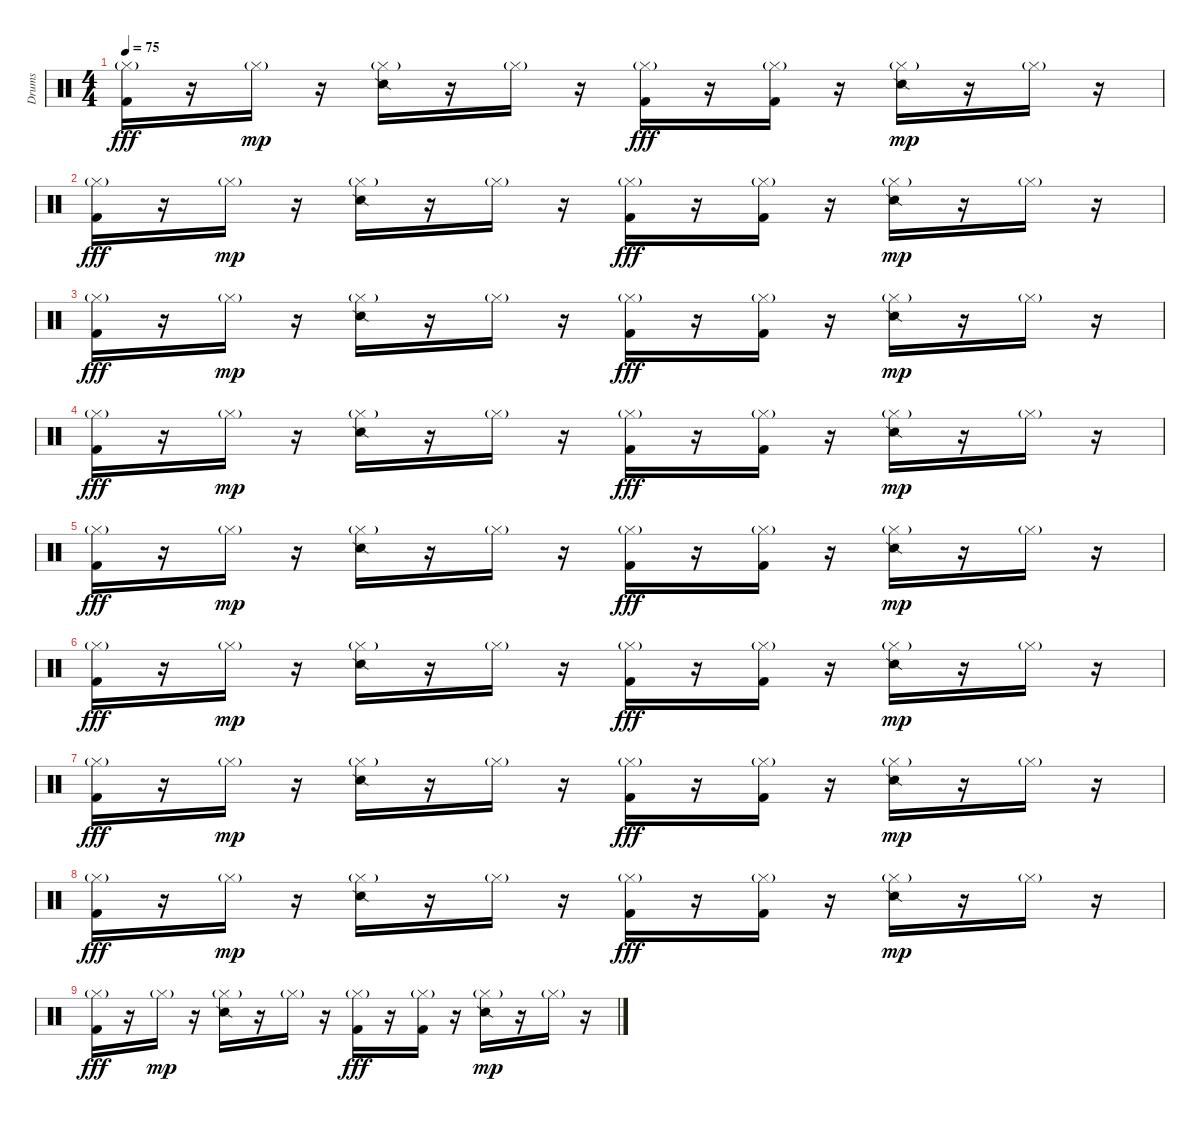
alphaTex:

\track ("Drums" "Drums") {instrument percussion}
\staff {score}
\articulation defaults
\ts (4 4)
\tempo 75
\clef neutral
\ks c
("Hi-Hat (closed)"{g} "Kick (hit) 2").16{dy fff} r.16 "Hi-Hat (closed)"{g}.16{dy mp} r.16 ("Hi-Hat (closed)"{g} "Snare (side stick) 2").16 r.16 "Hi-Hat (closed)"{g}.16 r.16 ("Hi-Hat (closed)"{g} "Kick (hit) 2").16{dy fff} r.16 ("Hi-Hat (closed)"{g} "Kick (hit) 2").16 r.16 ("Hi-Hat (closed)"{g} "Snare (side stick) 2").16{dy mp} r.16 "Hi-Hat (closed)"{g}.16 r.16 |
("Hi-Hat (closed)"{g} "Kick (hit) 2").16{dy fff} r.16 "Hi-Hat (closed)"{g}.16{dy mp} r.16 ("Hi-Hat (closed)"{g} "Snare (side stick) 2").16 r.16 "Hi-Hat (closed)"{g}.16 r.16 ("Hi-Hat (closed)"{g} "Kick (hit) 2").16{dy fff} r.16 ("Hi-Hat (closed)"{g} "Kick (hit) 2").16 r.16 ("Hi-Hat (closed)"{g} "Snare (side stick) 2").16{dy mp} r.16 "Hi-Hat (closed)"{g}.16 r.16 |
("Hi-Hat (closed)"{g} "Kick (hit) 2").16{dy fff} r.16 "Hi-Hat (closed)"{g}.16{dy mp} r.16 ("Hi-Hat (closed)"{g} "Snare (side stick) 2").16 r.16 "Hi-Hat (closed)"{g}.16 r.16 ("Hi-Hat (closed)"{g} "Kick (hit) 2").16{dy fff} r.16 ("Hi-Hat (closed)"{g} "Kick (hit) 2").16 r.16 ("Hi-Hat (closed)"{g} "Snare (side stick) 2").16{dy mp} r.16 "Hi-Hat (closed)"{g}.16 r.16 |
("Hi-Hat (closed)"{g} "Kick (hit) 2").16{dy fff} r.16 "Hi-Hat (closed)"{g}.16{dy mp} r.16 ("Hi-Hat (closed)"{g} "Snare (side stick) 2").16 r.16 "Hi-Hat (closed)"{g}.16 r.16 ("Hi-Hat (closed)"{g} "Kick (hit) 2").16{dy fff} r.16 ("Hi-Hat (closed)"{g} "Kick (hit) 2").16 r.16 ("Hi-Hat (closed)"{g} "Snare (side stick) 2").16{dy mp} r.16 "Hi-Hat (closed)"{g}.16 r.16 |
("Hi-Hat (closed)"{g} "Kick (hit) 2").16{dy fff} r.16 "Hi-Hat (closed)"{g}.16{dy mp} r.16 ("Hi-Hat (closed)"{g} "Snare (side stick) 2").16 r.16 "Hi-Hat (closed)"{g}.16 r.16 ("Hi-Hat (closed)"{g} "Kick (hit) 2").16{dy fff} r.16 ("Hi-Hat (closed)"{g} "Kick (hit) 2").16 r.16 ("Hi-Hat (closed)"{g} "Snare (side stick) 2").16{dy mp} r.16 "Hi-Hat (closed)"{g}.16 r.16 |
("Hi-Hat (closed)"{g} "Kick (hit) 2").16{dy fff} r.16 "Hi-Hat (closed)"{g}.16{dy mp} r.16 ("Hi-Hat (closed)"{g} "Snare (side stick) 2").16 r.16 "Hi-Hat (closed)"{g}.16 r.16 ("Hi-Hat (closed)"{g} "Kick (hit) 2").16{dy fff} r.16 ("Hi-Hat (closed)"{g} "Kick (hit) 2").16 r.16 ("Hi-Hat (closed)"{g} "Snare (side stick) 2").16{dy mp} r.16 "Hi-Hat (closed)"{g}.16 r.16 |
("Hi-Hat (closed)"{g} "Kick (hit) 2").16{dy fff} r.16 "Hi-Hat (closed)"{g}.16{dy mp} r.16 ("Hi-Hat (closed)"{g} "Snare (side stick) 2").16 r.16 "Hi-Hat (closed)"{g}.16 r.16 ("Hi-Hat (closed)"{g} "Kick (hit) 2").16{dy fff} r.16 ("Hi-Hat (closed)"{g} "Kick (hit) 2").16 r.16 ("Hi-Hat (closed)"{g} "Snare (side stick) 2").16{dy mp} r.16 "Hi-Hat (closed)"{g}.16 r.16 |
("Hi-Hat (closed)"{g} "Kick (hit) 2").16{dy fff} r.16 "Hi-Hat (closed)"{g}.16{dy mp} r.16 ("Hi-Hat (closed)"{g} "Snare (side stick) 2").16 r.16 "Hi-Hat (closed)"{g}.16 r.16 ("Hi-Hat (closed)"{g} "Kick (hit) 2").16{dy fff} r.16 ("Hi-Hat (closed)"{g} "Kick (hit) 2").16 r.16 ("Hi-Hat (closed)"{g} "Snare (side stick) 2").16{dy mp} r.16 "Hi-Hat (closed)"{g}.16 r.16 |
("Hi-Hat (closed)"{g} "Kick (hit) 2").16{dy fff} r.16 "Hi-Hat (closed)"{g}.16{dy mp} r.16 ("Hi-Hat (closed)"{g} "Snare (side stick) 2").16 r.16 "Hi-Hat (closed)"{g}.16 r.16 ("Hi-Hat (closed)"{g} "Kick (hit) 2").16{dy fff} r.16 ("Hi-Hat (closed)"{g} "Kick (hit) 2").16 r.16 ("Hi-Hat (closed)"{g} "Snare (side stick) 2").16{dy mp} r.16 "Hi-Hat (closed)"{g}.16 r.16
